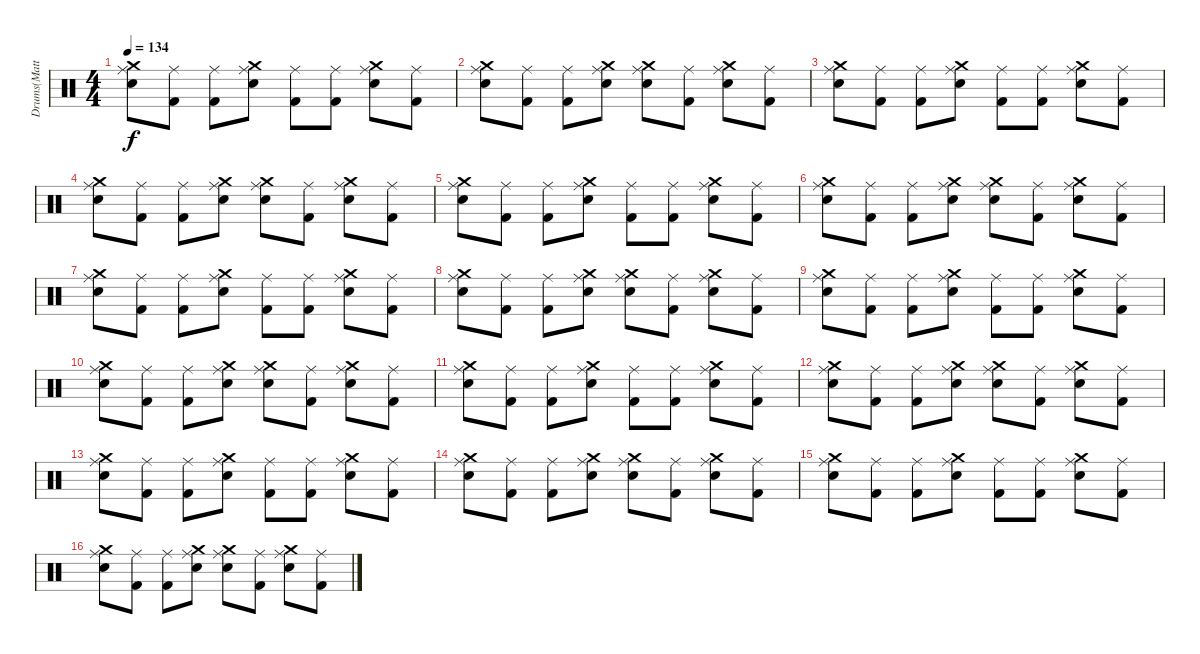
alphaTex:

\track ("Drums(Matthias)" "Drums(Matt") {instrument percussion}
\staff {score}
\articulation defaults
\ts (4 4)
\tempo 134
\clef neutral
\ks c
("Ride (middle)" "Crash medium (hit)" "Snare (hit) 2").8{dy f volume 13} ("Ride (middle)" "Kick (hit) 2").8 ("Ride (middle)" "Kick (hit) 2").8 ("Ride (middle)" "Crash medium (hit)" "Snare (hit) 2").8 ("Ride (middle)" "Kick (hit) 2").8 ("Ride (middle)" "Kick (hit) 2").8 ("Ride (middle)" "Crash medium (hit)" "Snare (hit) 2").8 ("Ride (middle)" "Kick (hit) 2").8 |
("Ride (middle)" "Crash medium (hit)" "Snare (hit) 2").8 ("Ride (middle)" "Kick (hit) 2").8 ("Ride (middle)" "Kick (hit) 2").8 ("Ride (middle)" "Crash medium (hit)" "Snare (hit) 2").8 ("Ride (middle)" "Crash medium (hit)" "Snare (hit) 2").8 ("Ride (middle)" "Kick (hit) 2").8 ("Ride (middle)" "Crash medium (hit)" "Snare (hit) 2").8 ("Ride (middle)" "Kick (hit) 2").8 |
("Ride (middle)" "Crash medium (hit)" "Snare (hit) 2").8 ("Ride (middle)" "Kick (hit) 2").8 ("Ride (middle)" "Kick (hit) 2").8 ("Ride (middle)" "Crash medium (hit)" "Snare (hit) 2").8 ("Ride (middle)" "Kick (hit) 2").8 ("Ride (middle)" "Kick (hit) 2").8 ("Ride (middle)" "Crash medium (hit)" "Snare (hit) 2").8 ("Ride (middle)" "Kick (hit) 2").8 |
("Ride (middle)" "Crash medium (hit)" "Snare (hit) 2").8 ("Ride (middle)" "Kick (hit) 2").8 ("Ride (middle)" "Kick (hit) 2").8 ("Ride (middle)" "Crash medium (hit)" "Snare (hit) 2").8 ("Ride (middle)" "Crash medium (hit)" "Snare (hit) 2").8 ("Ride (middle)" "Kick (hit) 2").8 ("Ride (middle)" "Crash medium (hit)" "Snare (hit) 2").8 ("Ride (middle)" "Kick (hit) 2").8 |
("Ride (middle)" "Crash medium (hit)" "Snare (hit) 2").8 ("Ride (middle)" "Kick (hit) 2").8 ("Ride (middle)" "Kick (hit) 2").8 ("Ride (middle)" "Crash medium (hit)" "Snare (hit) 2").8 ("Ride (middle)" "Kick (hit) 2").8 ("Ride (middle)" "Kick (hit) 2").8 ("Ride (middle)" "Crash medium (hit)" "Snare (hit) 2").8 ("Ride (middle)" "Kick (hit) 2").8 |
("Ride (middle)" "Crash medium (hit)" "Snare (hit) 2").8 ("Ride (middle)" "Kick (hit) 2").8 ("Ride (middle)" "Kick (hit) 2").8 ("Ride (middle)" "Crash medium (hit)" "Snare (hit) 2").8 ("Ride (middle)" "Crash medium (hit)" "Snare (hit) 2").8 ("Ride (middle)" "Kick (hit) 2").8 ("Ride (middle)" "Crash medium (hit)" "Snare (hit) 2").8 ("Ride (middle)" "Kick (hit) 2").8 |
("Ride (middle)" "Crash medium (hit)" "Snare (hit) 2").8 ("Ride (middle)" "Kick (hit) 2").8 ("Ride (middle)" "Kick (hit) 2").8 ("Ride (middle)" "Crash medium (hit)" "Snare (hit) 2").8 ("Ride (middle)" "Kick (hit) 2").8 ("Ride (middle)" "Kick (hit) 2").8 ("Ride (middle)" "Crash medium (hit)" "Snare (hit) 2").8 ("Ride (middle)" "Kick (hit) 2").8 |
("Ride (middle)" "Crash medium (hit)" "Snare (hit) 2").8 ("Ride (middle)" "Kick (hit) 2").8 ("Ride (middle)" "Kick (hit) 2").8 ("Ride (middle)" "Crash medium (hit)" "Snare (hit) 2").8 ("Ride (middle)" "Crash medium (hit)" "Snare (hit) 2").8 ("Ride (middle)" "Kick (hit) 2").8 ("Ride (middle)" "Crash medium (hit)" "Snare (hit) 2").8 ("Ride (middle)" "Kick (hit) 2").8 |
("Ride (middle)" "Crash medium (hit)" "Snare (hit) 2").8 ("Ride (middle)" "Kick (hit) 2").8 ("Ride (middle)" "Kick (hit) 2").8 ("Ride (middle)" "Crash medium (hit)" "Snare (hit) 2").8 ("Ride (middle)" "Kick (hit) 2").8 ("Ride (middle)" "Kick (hit) 2").8 ("Ride (middle)" "Crash medium (hit)" "Snare (hit) 2").8 ("Ride (middle)" "Kick (hit) 2").8 |
("Ride (middle)" "Crash medium (hit)" "Snare (hit) 2").8 ("Ride (middle)" "Kick (hit) 2").8 ("Ride (middle)" "Kick (hit) 2").8 ("Ride (middle)" "Crash medium (hit)" "Snare (hit) 2").8 ("Ride (middle)" "Crash medium (hit)" "Snare (hit) 2").8 ("Ride (middle)" "Kick (hit) 2").8 ("Ride (middle)" "Crash medium (hit)" "Snare (hit) 2").8 ("Ride (middle)" "Kick (hit) 2").8 |
("Ride (middle)" "Crash medium (hit)" "Snare (hit) 2").8 ("Ride (middle)" "Kick (hit) 2").8 ("Ride (middle)" "Kick (hit) 2").8 ("Ride (middle)" "Crash medium (hit)" "Snare (hit) 2").8 ("Ride (middle)" "Kick (hit) 2").8 ("Ride (middle)" "Kick (hit) 2").8 ("Ride (middle)" "Crash medium (hit)" "Snare (hit) 2").8 ("Ride (middle)" "Kick (hit) 2").8 |
("Ride (middle)" "Crash medium (hit)" "Snare (hit) 2").8 ("Ride (middle)" "Kick (hit) 2").8 ("Ride (middle)" "Kick (hit) 2").8 ("Ride (middle)" "Crash medium (hit)" "Snare (hit) 2").8 ("Ride (middle)" "Crash medium (hit)" "Snare (hit) 2").8 ("Ride (middle)" "Kick (hit) 2").8 ("Ride (middle)" "Crash medium (hit)" "Snare (hit) 2").8 ("Ride (middle)" "Kick (hit) 2").8 |
("Ride (middle)" "Crash medium (hit)" "Snare (hit) 2").8 ("Ride (middle)" "Kick (hit) 2").8 ("Ride (middle)" "Kick (hit) 2").8 ("Ride (middle)" "Crash medium (hit)" "Snare (hit) 2").8 ("Ride (middle)" "Kick (hit) 2").8 ("Ride (middle)" "Kick (hit) 2").8 ("Ride (middle)" "Crash medium (hit)" "Snare (hit) 2").8 ("Ride (middle)" "Kick (hit) 2").8 |
("Ride (middle)" "Crash medium (hit)" "Snare (hit) 2").8 ("Ride (middle)" "Kick (hit) 2").8 ("Ride (middle)" "Kick (hit) 2").8 ("Ride (middle)" "Crash medium (hit)" "Snare (hit) 2").8 ("Ride (middle)" "Crash medium (hit)" "Snare (hit) 2").8 ("Ride (middle)" "Kick (hit) 2").8 ("Ride (middle)" "Crash medium (hit)" "Snare (hit) 2").8 ("Ride (middle)" "Kick (hit) 2").8 |
("Ride (middle)" "Crash medium (hit)" "Snare (hit) 2").8 ("Ride (middle)" "Kick (hit) 2").8 ("Ride (middle)" "Kick (hit) 2").8 ("Ride (middle)" "Crash medium (hit)" "Snare (hit) 2").8 ("Ride (middle)" "Kick (hit) 2").8 ("Ride (middle)" "Kick (hit) 2").8 ("Ride (middle)" "Crash medium (hit)" "Snare (hit) 2").8 ("Ride (middle)" "Kick (hit) 2").8 |
("Ride (middle)" "Crash medium (hit)" "Snare (hit) 2").8 ("Ride (middle)" "Kick (hit) 2").8 ("Ride (middle)" "Kick (hit) 2").8 ("Ride (middle)" "Crash medium (hit)" "Snare (hit) 2").8 ("Ride (middle)" "Crash medium (hit)" "Snare (hit) 2").8 ("Ride (middle)" "Kick (hit) 2").8 ("Ride (middle)" "Crash medium (hit)" "Snare (hit) 2").8 ("Ride (middle)" "Kick (hit) 2").8
